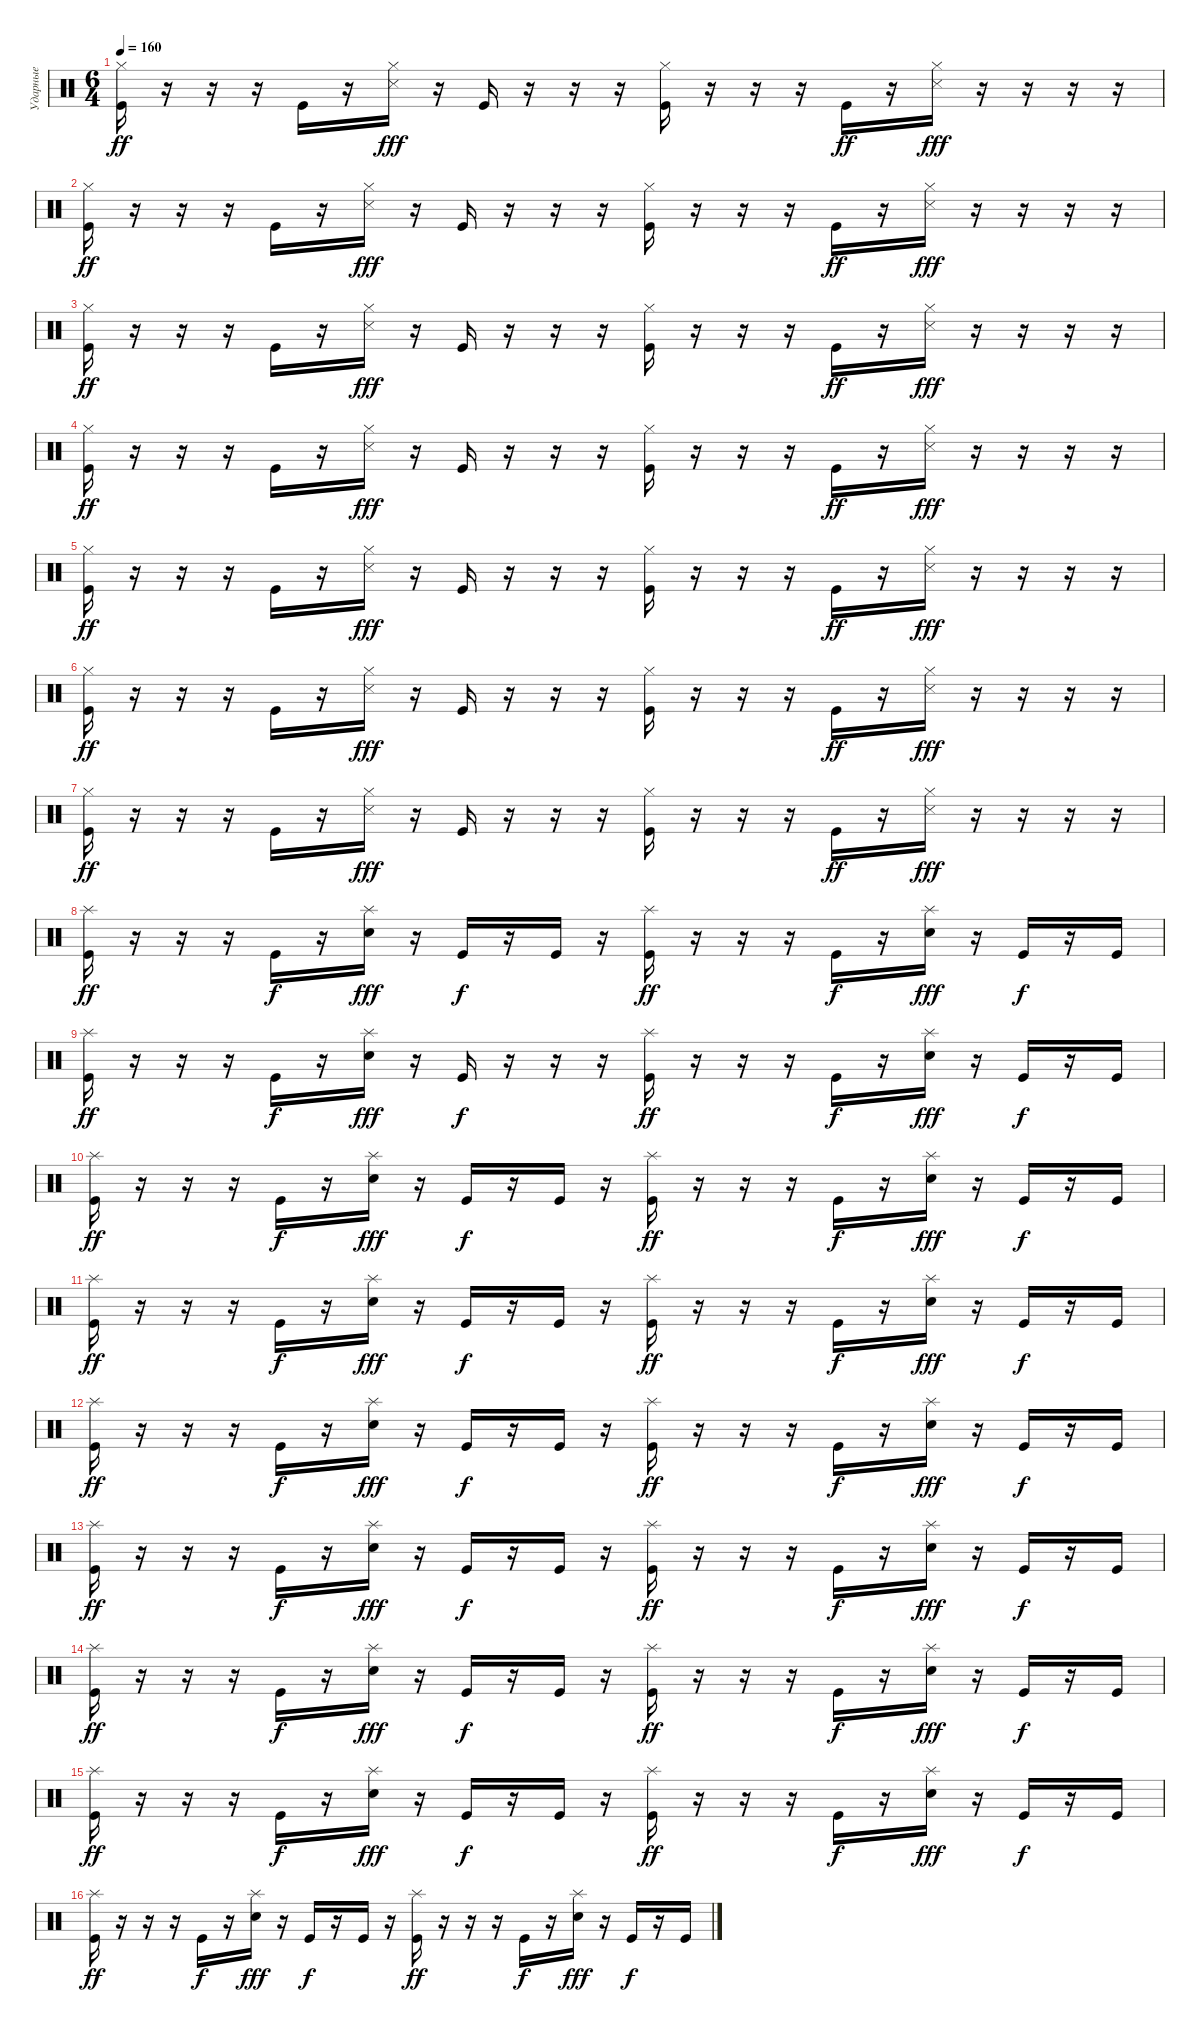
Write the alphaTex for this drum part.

\track ("Ударные" "Ударные") {instrument percussion}
\staff {score}
\articulation defaults
\ts (6 4)
\tempo 160
\clef neutral
\ks c
("Hi-Hat (closed)" "Kick (hit)").16{dy ff} r.16 r.16 r.16 "Kick (hit)".16 r.16 ("Hi-Hat (closed)" "Snare (side stick) 3").16{dy fff} r.16 "Kick (hit)".16 r.16 r.16 r.16 ("Hi-Hat (closed)" "Kick (hit)").16 r.16 r.16 r.16 "Kick (hit)".16{dy ff} r.16 ("Hi-Hat (closed)" "Snare (side stick) 3").16{dy fff} r.16 r.16 r.16 r.16 |
("Hi-Hat (closed)" "Kick (hit)").16{dy ff} r.16 r.16 r.16 "Kick (hit)".16 r.16 ("Hi-Hat (closed)" "Snare (side stick) 3").16{dy fff} r.16 "Kick (hit)".16 r.16 r.16 r.16 ("Hi-Hat (closed)" "Kick (hit)").16 r.16 r.16 r.16 "Kick (hit)".16{dy ff} r.16 ("Hi-Hat (closed)" "Snare (side stick) 3").16{dy fff} r.16 r.16 r.16 r.16 |
("Hi-Hat (closed)" "Kick (hit)").16{dy ff} r.16 r.16 r.16 "Kick (hit)".16 r.16 ("Hi-Hat (closed)" "Snare (side stick) 3").16{dy fff} r.16 "Kick (hit)".16 r.16 r.16 r.16 ("Hi-Hat (closed)" "Kick (hit)").16 r.16 r.16 r.16 "Kick (hit)".16{dy ff} r.16 ("Hi-Hat (closed)" "Snare (side stick) 3").16{dy fff} r.16 r.16 r.16 r.16 |
("Hi-Hat (closed)" "Kick (hit)").16{dy ff} r.16 r.16 r.16 "Kick (hit)".16 r.16 ("Hi-Hat (closed)" "Snare (side stick) 3").16{dy fff} r.16 "Kick (hit)".16 r.16 r.16 r.16 ("Hi-Hat (closed)" "Kick (hit)").16 r.16 r.16 r.16 "Kick (hit)".16{dy ff} r.16 ("Hi-Hat (closed)" "Snare (side stick) 3").16{dy fff} r.16 r.16 r.16 r.16 |
("Hi-Hat (closed)" "Kick (hit)").16{dy ff} r.16 r.16 r.16 "Kick (hit)".16 r.16 ("Hi-Hat (closed)" "Snare (side stick) 3").16{dy fff} r.16 "Kick (hit)".16 r.16 r.16 r.16 ("Hi-Hat (closed)" "Kick (hit)").16 r.16 r.16 r.16 "Kick (hit)".16{dy ff} r.16 ("Hi-Hat (closed)" "Snare (side stick) 3").16{dy fff} r.16 r.16 r.16 r.16 |
("Hi-Hat (closed)" "Kick (hit)").16{dy ff} r.16 r.16 r.16 "Kick (hit)".16 r.16 ("Hi-Hat (closed)" "Snare (side stick) 3").16{dy fff} r.16 "Kick (hit)".16 r.16 r.16 r.16 ("Hi-Hat (closed)" "Kick (hit)").16 r.16 r.16 r.16 "Kick (hit)".16{dy ff} r.16 ("Hi-Hat (closed)" "Snare (side stick) 3").16{dy fff} r.16 r.16 r.16 r.16 |
("Hi-Hat (closed)" "Kick (hit)").16{dy ff} r.16 r.16 r.16 "Kick (hit)".16 r.16 ("Hi-Hat (closed)" "Snare (side stick) 3").16{dy fff} r.16 "Kick (hit)".16 r.16 r.16 r.16 ("Hi-Hat (closed)" "Kick (hit)").16 r.16 r.16 r.16 "Kick (hit)".16{dy ff} r.16 ("Hi-Hat (closed)" "Snare (side stick) 3").16{dy fff} r.16 r.16 r.16 r.16 |
("Splash (hit)" "Kick (hit)").16{dy ff} r.16 r.16 r.16 "Kick (hit)".16{dy f} r.16 ("Splash (hit)" "Electric Snare (hit)").16{dy fff} r.16 "Kick (hit)".16{dy f} r.16 "Kick (hit)".16 r.16 ("Splash (hit)" "Kick (hit)").16{dy ff} r.16 r.16 r.16 "Kick (hit)".16{dy f} r.16 ("Splash (hit)" "Electric Snare (hit)").16{dy fff} r.16 "Kick (hit)".16{dy f} r.16 "Kick (hit)".16 |
("Splash (hit)" "Kick (hit)").16{dy ff} r.16 r.16 r.16 "Kick (hit)".16{dy f} r.16 ("Splash (hit)" "Electric Snare (hit)").16{dy fff} r.16 "Kick (hit)".16{dy f} r.16 r.16 r.16 ("Splash (hit)" "Kick (hit)").16{dy ff} r.16 r.16 r.16 "Kick (hit)".16{dy f} r.16 ("Splash (hit)" "Electric Snare (hit)").16{dy fff} r.16 "Kick (hit)".16{dy f} r.16 "Kick (hit)".16 |
("Splash (hit)" "Kick (hit)").16{dy ff} r.16 r.16 r.16 "Kick (hit)".16{dy f} r.16 ("Splash (hit)" "Electric Snare (hit)").16{dy fff} r.16 "Kick (hit)".16{dy f} r.16 "Kick (hit)".16 r.16 ("Splash (hit)" "Kick (hit)").16{dy ff} r.16 r.16 r.16 "Kick (hit)".16{dy f} r.16 ("Splash (hit)" "Electric Snare (hit)").16{dy fff} r.16 "Kick (hit)".16{dy f} r.16 "Kick (hit)".16 |
("Splash (hit)" "Kick (hit)").16{dy ff} r.16 r.16 r.16 "Kick (hit)".16{dy f} r.16 ("Splash (hit)" "Electric Snare (hit)").16{dy fff} r.16 "Kick (hit)".16{dy f} r.16 "Kick (hit)".16 r.16 ("Splash (hit)" "Kick (hit)").16{dy ff} r.16 r.16 r.16 "Kick (hit)".16{dy f} r.16 ("Splash (hit)" "Electric Snare (hit)").16{dy fff} r.16 "Kick (hit)".16{dy f} r.16 "Kick (hit)".16 |
("Splash (hit)" "Kick (hit)").16{dy ff} r.16 r.16 r.16 "Kick (hit)".16{dy f} r.16 ("Splash (hit)" "Electric Snare (hit)").16{dy fff} r.16 "Kick (hit)".16{dy f} r.16 "Kick (hit)".16 r.16 ("Splash (hit)" "Kick (hit)").16{dy ff} r.16 r.16 r.16 "Kick (hit)".16{dy f} r.16 ("Splash (hit)" "Electric Snare (hit)").16{dy fff} r.16 "Kick (hit)".16{dy f} r.16 "Kick (hit)".16 |
("Splash (hit)" "Kick (hit)").16{dy ff} r.16 r.16 r.16 "Kick (hit)".16{dy f} r.16 ("Splash (hit)" "Electric Snare (hit)").16{dy fff} r.16 "Kick (hit)".16{dy f} r.16 "Kick (hit)".16 r.16 ("Splash (hit)" "Kick (hit)").16{dy ff} r.16 r.16 r.16 "Kick (hit)".16{dy f} r.16 ("Splash (hit)" "Electric Snare (hit)").16{dy fff} r.16 "Kick (hit)".16{dy f} r.16 "Kick (hit)".16 |
("Splash (hit)" "Kick (hit)").16{dy ff} r.16 r.16 r.16 "Kick (hit)".16{dy f} r.16 ("Splash (hit)" "Electric Snare (hit)").16{dy fff} r.16 "Kick (hit)".16{dy f} r.16 "Kick (hit)".16 r.16 ("Splash (hit)" "Kick (hit)").16{dy ff} r.16 r.16 r.16 "Kick (hit)".16{dy f} r.16 ("Splash (hit)" "Electric Snare (hit)").16{dy fff} r.16 "Kick (hit)".16{dy f} r.16 "Kick (hit)".16 |
("Splash (hit)" "Kick (hit)").16{dy ff} r.16 r.16 r.16 "Kick (hit)".16{dy f} r.16 ("Splash (hit)" "Electric Snare (hit)").16{dy fff} r.16 "Kick (hit)".16{dy f} r.16 "Kick (hit)".16 r.16 ("Splash (hit)" "Kick (hit)").16{dy ff} r.16 r.16 r.16 "Kick (hit)".16{dy f} r.16 ("Splash (hit)" "Electric Snare (hit)").16{dy fff} r.16 "Kick (hit)".16{dy f} r.16 "Kick (hit)".16 |
("Splash (hit)" "Kick (hit)").16{dy ff} r.16 r.16 r.16 "Kick (hit)".16{dy f} r.16 ("Splash (hit)" "Electric Snare (hit)").16{dy fff} r.16 "Kick (hit)".16{dy f} r.16 "Kick (hit)".16 r.16 ("Splash (hit)" "Kick (hit)").16{dy ff} r.16 r.16 r.16 "Kick (hit)".16{dy f} r.16 ("Splash (hit)" "Electric Snare (hit)").16{dy fff} r.16 "Kick (hit)".16{dy f} r.16 "Kick (hit)".16
